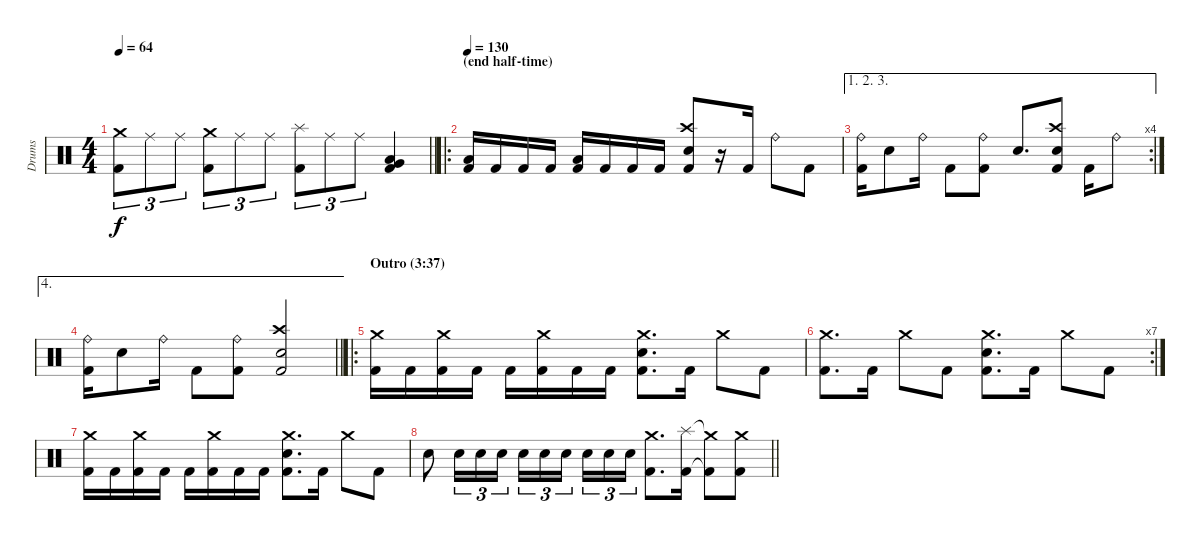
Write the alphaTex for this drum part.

\track ("Drums" "Drums") {instrument percussion}
\staff {score}
\articulation defaults
\ts (4 4)
\tempo 64
\clef neutral
\barLineRight lightlight
\ks c
("Crash medium (hit)" "Kick (hit) 2").8{tu (3 2) dy f} "Ride (middle)".8{tu (3 2)} "Ride (middle)".8{tu (3 2)} ("Crash medium (hit)" "Kick (hit) 2").8{tu (3 2)} "Ride (middle)".8{tu (3 2)} "Ride (middle)".8{tu (3 2)} ("Splash (hit)" "Kick (hit) 2").8{tu (3 2)} "Ride (middle)".8{tu (3 2)} "Ride (middle)".8{tu (3 2)} ("Low Tom (hit)" "Very Low Tom (hit)" "Kick (hit) 2").4 |
\ro
\section ("" "(end half-time)")
\tempo 130
("Low Floor Tom (hit)" "Kick (hit) 2").16 "Kick (hit) 2".16 "Kick (hit) 2".16 "Kick (hit) 2".16 ("Low Floor Tom (hit)" "Kick (hit) 2").16 "Kick (hit) 2".16 "Kick (hit) 2".16 "Kick (hit) 2".16 ("Crash high (hit)" "Electric Snare (hit)" "Kick (hit) 2").8 r.16 "Kick (hit) 2".16 "Ride (bell)".8 "Kick (hit) 2".8 |
\ae (1 2 3)
\rc 4
("Ride (bell)" "Kick (hit) 2").16 "Electric Snare (hit)".8 "Ride (bell)".16 "Kick (hit) 2".8 ("Ride (bell)" "Kick (hit) 2").8 "Electric Snare (hit)".8{d} ("Crash high (hit)" "Electric Snare (hit)" "Kick (hit) 2").8 "Kick (hit) 2".16 "Ride (bell)".8 |
\ae 4
\barLineRight lightlight
("Ride (bell)" "Kick (hit) 2").16 "Electric Snare (hit)".8 "Ride (bell)".16 "Kick (hit) 2".8 ("Ride (bell)" "Kick (hit) 2").8 ("Crash high (hit)" "Electric Snare (hit)" "Kick (hit) 2").2 |
\ro
\section ("" "Outro (3:37)")
("Crash medium (hit)" "Kick (hit) 2").16 "Kick (hit) 2".16 ("Crash medium (hit)" "Kick (hit) 2").16 "Kick (hit) 2".16 "Kick (hit) 2".16 ("Crash medium (hit)" "Kick (hit) 2").16 "Kick (hit) 2".16 "Kick (hit) 2".16 ("Crash medium (hit)" "Electric Snare (hit)" "Kick (hit) 2").8{d} "Kick (hit) 2".16 "Crash medium (hit)".8 "Kick (hit) 2".8 |
\rc 7
("Crash medium (hit)" "Kick (hit) 2").8{d} "Kick (hit) 2".16 "Crash medium (hit)".8 "Kick (hit) 2".8 ("Crash medium (hit)" "Electric Snare (hit)" "Kick (hit) 2").8{d} "Kick (hit) 2".16 "Crash medium (hit)".8 "Kick (hit) 2".8 |
("Crash medium (hit)" "Kick (hit) 2").16 "Kick (hit) 2".16 ("Crash medium (hit)" "Kick (hit) 2").16 "Kick (hit) 2".16 "Kick (hit) 2".16 ("Crash medium (hit)" "Kick (hit) 2").16 "Kick (hit) 2".16 "Kick (hit) 2".16 ("Crash medium (hit)" "Electric Snare (hit)" "Kick (hit) 2").8{d} "Kick (hit) 2".16 "Crash medium (hit)".8 "Kick (hit) 2".8 |
\barLineRight lightlight "Electric Snare (hit)".8 "Electric Snare (hit)".16{tu (3 2)} "Electric Snare (hit)".16{tu (3 2)} "Electric Snare (hit)".16{tu (3 2)} "Electric Snare (hit)".16{tu (3 2)} "Electric Snare (hit)".16{tu (3 2)} "Electric Snare (hit)".16{tu (3 2) beam splitsecondary} "Electric Snare (hit)".16{tu (3 2)} "Electric Snare (hit)".16{tu (3 2)} "Electric Snare (hit)".16{tu (3 2)}
("Crash medium (hit)" "Kick (hit) 2").8{d} ("Splash (hit)" "Kick (hit) 2").16 ("Crash medium (hit)"{t} "Kick (hit) 2"{t}).8 ("Crash medium (hit)" "Kick (hit) 2").8
